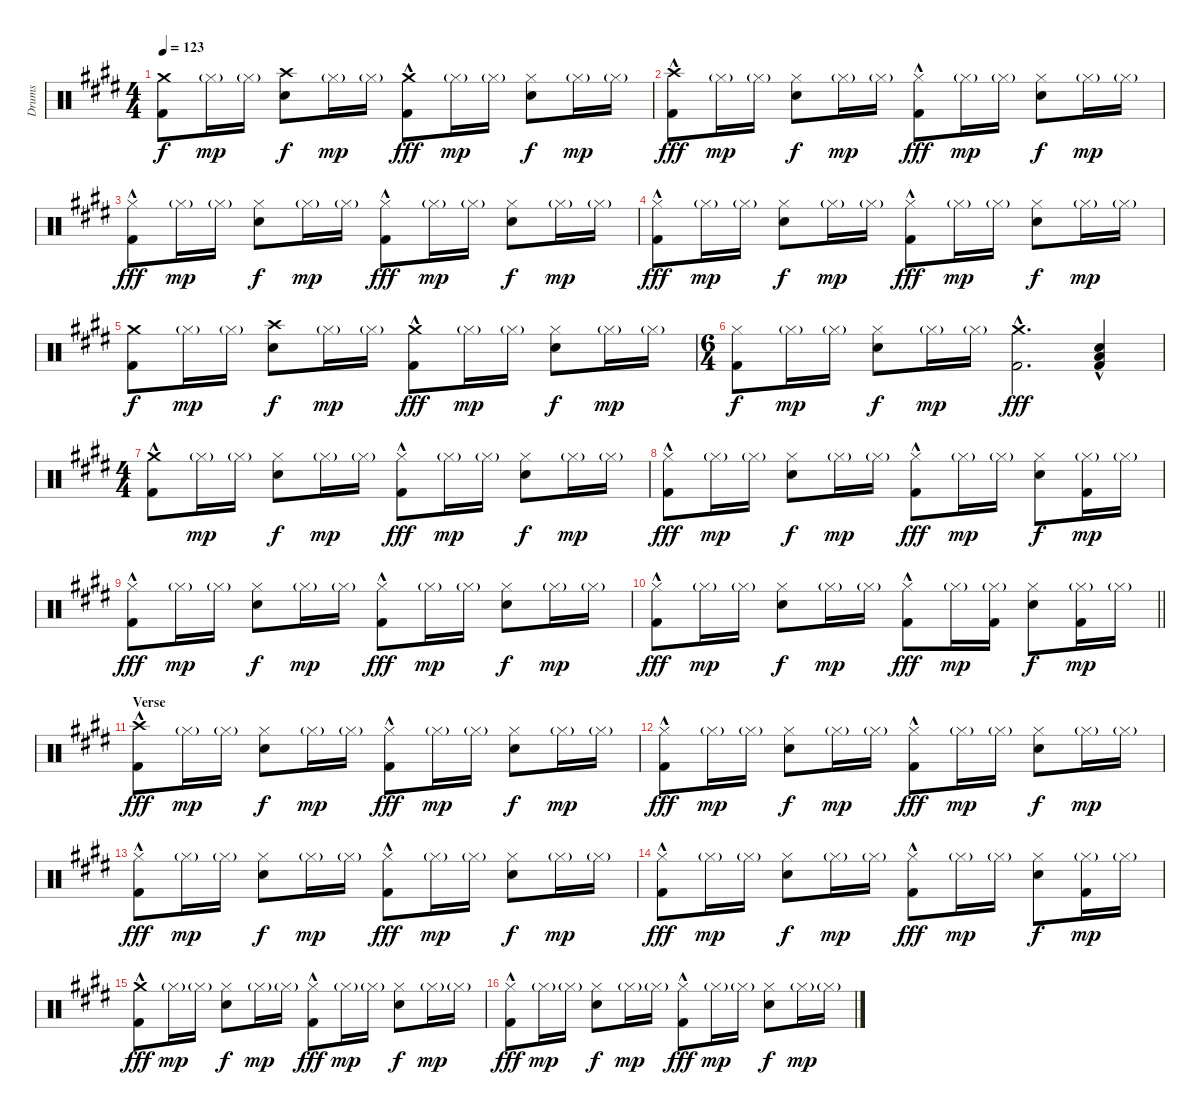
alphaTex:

\track ("Drums" "Drums") {instrument percussion}
\staff {score}
\articulation defaults
\ts (4 4)
\tempo 123
\clef neutral
\ks c#minor
("Crash medium (hit)" "Kick (hit) 2").8{dy f} "Hi-Hat (closed)"{g}.16{dy mp} "Hi-Hat (closed)"{g}.16 ("Crash high (hit)" "Snare (hit) 2").8{dy f} "Hi-Hat (closed)"{g}.16{dy mp} "Hi-Hat (closed)"{g}.16 ("Crash medium (hit)" "Kick (hit) 2"{hac}).8{dy fff} "Hi-Hat (closed)"{g}.16{dy mp} "Hi-Hat (closed)"{g}.16 ("Hi-Hat (closed)" "Snare (hit) 2").8{dy f} "Hi-Hat (closed)"{g}.16{dy mp} "Hi-Hat (closed)"{g}.16 |
("Crash high (hit)" "Kick (hit) 2"{hac}).8{dy fff} "Hi-Hat (closed)"{g}.16{dy mp} "Hi-Hat (closed)"{g}.16 ("Hi-Hat (closed)" "Snare (hit) 2").8{dy f} "Hi-Hat (closed)"{g}.16{dy mp} "Hi-Hat (closed)"{g}.16 ("Hi-Hat (closed)"{hac} "Kick (hit) 2"{hac}).8{dy fff} "Hi-Hat (closed)"{g}.16{dy mp} "Hi-Hat (closed)"{g}.16 ("Hi-Hat (closed)" "Snare (hit) 2").8{dy f} "Hi-Hat (closed)"{g}.16{dy mp} "Hi-Hat (closed)"{g}.16 |
("Hi-Hat (closed)"{hac} "Kick (hit) 2").8{dy fff} "Hi-Hat (closed)"{g}.16{dy mp} "Hi-Hat (closed)"{g}.16 ("Hi-Hat (closed)" "Snare (hit) 2").8{dy f} "Hi-Hat (closed)"{g}.16{dy mp} "Hi-Hat (closed)"{g}.16 ("Hi-Hat (closed)"{hac} "Kick (hit) 2"{hac}).8{dy fff} "Hi-Hat (closed)"{g}.16{dy mp} "Hi-Hat (closed)"{g}.16 ("Hi-Hat (closed)" "Snare (hit) 2").8{dy f} "Hi-Hat (closed)"{g}.16{dy mp} "Hi-Hat (closed)"{g}.16 |
("Hi-Hat (closed)"{hac} "Kick (hit) 2").8{dy fff} "Hi-Hat (closed)"{g}.16{dy mp} "Hi-Hat (closed)"{g}.16 ("Hi-Hat (closed)" "Snare (hit) 2").8{dy f} "Hi-Hat (closed)"{g}.16{dy mp} "Hi-Hat (closed)"{g}.16 ("Hi-Hat (closed)"{hac} "Kick (hit) 2"{hac}).8{dy fff} "Hi-Hat (closed)"{g}.16{dy mp} "Hi-Hat (closed)"{g}.16 ("Hi-Hat (closed)" "Snare (hit) 2").8{dy f} "Hi-Hat (closed)"{g}.16{dy mp} "Hi-Hat (closed)"{g}.16 |
("Crash medium (hit)" "Kick (hit) 2").8{dy f} "Hi-Hat (closed)"{g}.16{dy mp} "Hi-Hat (closed)"{g}.16 ("Crash high (hit)" "Snare (hit) 2").8{dy f} "Hi-Hat (closed)"{g}.16{dy mp} "Hi-Hat (closed)"{g}.16 ("Crash medium (hit)" "Kick (hit) 2"{hac}).8{dy fff} "Hi-Hat (closed)"{g}.16{dy mp} "Hi-Hat (closed)"{g}.16 ("Hi-Hat (closed)" "Snare (hit) 2").8{dy f} "Hi-Hat (closed)"{g}.16{dy mp} "Hi-Hat (closed)"{g}.16 |
\ts (6 4)
("Hi-Hat (closed)" "Kick (hit) 2").8{dy f} "Hi-Hat (closed)"{g}.16{dy mp} "Hi-Hat (closed)"{g}.16 ("Hi-Hat (closed)" "Snare (hit) 2").8{dy f} "Hi-Hat (closed)"{g}.16{dy mp} "Hi-Hat (closed)"{g}.16 ("Crash medium (hit)" "Kick (hit) 2"{hac}).2{d dy fff} ("Low Floor Tom (hit)"{hac} "Snare (hit) 2"{hac} "Kick (hit) 2"{hac}).4 |
\ts (4 4)
("Crash medium (hit)" "Kick (hit) 2"{hac}).8 "Hi-Hat (closed)"{g}.16{dy mp} "Hi-Hat (closed)"{g}.16 ("Hi-Hat (closed)" "Snare (hit) 2").8{dy f} "Hi-Hat (closed)"{g}.16{dy mp} "Hi-Hat (closed)"{g}.16 ("Hi-Hat (closed)"{hac} "Kick (hit) 2"{hac}).8{dy fff} "Hi-Hat (closed)"{g}.16{dy mp} "Hi-Hat (closed)"{g}.16 ("Hi-Hat (closed)" "Snare (hit) 2").8{dy f} "Hi-Hat (closed)"{g}.16{dy mp} "Hi-Hat (closed)"{g}.16 |
("Hi-Hat (closed)"{hac} "Kick (hit) 2").8{dy fff} "Hi-Hat (closed)"{g}.16{dy mp} "Hi-Hat (closed)"{g}.16 ("Hi-Hat (closed)" "Snare (hit) 2").8{dy f} "Hi-Hat (closed)"{g}.16{dy mp} "Hi-Hat (closed)"{g}.16 ("Hi-Hat (closed)"{hac} "Kick (hit) 2"{hac}).8{dy fff} "Hi-Hat (closed)"{g}.16{dy mp} "Hi-Hat (closed)"{g}.16 ("Hi-Hat (closed)" "Snare (hit) 2").8{dy f} ("Hi-Hat (closed)"{g} "Kick (hit) 2").16{dy mp} "Hi-Hat (closed)"{g}.16 |
("Hi-Hat (closed)"{hac} "Kick (hit) 2").8{dy fff} "Hi-Hat (closed)"{g}.16{dy mp} "Hi-Hat (closed)"{g}.16 ("Hi-Hat (closed)" "Snare (hit) 2").8{dy f} "Hi-Hat (closed)"{g}.16{dy mp} "Hi-Hat (closed)"{g}.16 ("Hi-Hat (closed)"{hac} "Kick (hit) 2"{hac}).8{dy fff} "Hi-Hat (closed)"{g}.16{dy mp} "Hi-Hat (closed)"{g}.16 ("Hi-Hat (closed)" "Snare (hit) 2").8{dy f} "Hi-Hat (closed)"{g}.16{dy mp} "Hi-Hat (closed)"{g}.16 |
\barLineRight lightlight
("Hi-Hat (closed)"{hac} "Kick (hit) 2").8{dy fff} "Hi-Hat (closed)"{g}.16{dy mp} "Hi-Hat (closed)"{g}.16 ("Hi-Hat (closed)" "Snare (hit) 2").8{dy f} "Hi-Hat (closed)"{g}.16{dy mp} "Hi-Hat (closed)"{g}.16 ("Hi-Hat (closed)"{hac} "Kick (hit) 2"{hac}).8{dy fff} "Hi-Hat (closed)"{g}.16{dy mp} ("Hi-Hat (closed)"{g} "Kick (hit) 2").16 ("Hi-Hat (closed)" "Snare (hit) 2").8{dy f} ("Hi-Hat (closed)"{g} "Kick (hit) 2").16{dy mp} "Hi-Hat (closed)"{g}.16 |
\section ("" "Verse")
("Crash high (hit)" "Kick (hit) 2"{hac}).8{dy fff} "Hi-Hat (closed)"{g}.16{dy mp} "Hi-Hat (closed)"{g}.16 ("Hi-Hat (closed)" "Snare (hit) 2").8{dy f} "Hi-Hat (closed)"{g}.16{dy mp} "Hi-Hat (closed)"{g}.16 ("Hi-Hat (closed)"{hac} "Kick (hit) 2"{hac}).8{dy fff} "Hi-Hat (closed)"{g}.16{dy mp} "Hi-Hat (closed)"{g}.16 ("Hi-Hat (closed)" "Snare (hit) 2").8{dy f} "Hi-Hat (closed)"{g}.16{dy mp} "Hi-Hat (closed)"{g}.16 |
("Hi-Hat (closed)"{hac} "Kick (hit) 2").8{dy fff} "Hi-Hat (closed)"{g}.16{dy mp} "Hi-Hat (closed)"{g}.16 ("Hi-Hat (closed)" "Snare (hit) 2").8{dy f} "Hi-Hat (closed)"{g}.16{dy mp} "Hi-Hat (closed)"{g}.16 ("Hi-Hat (closed)"{hac} "Kick (hit) 2"{hac}).8{dy fff} "Hi-Hat (closed)"{g}.16{dy mp} "Hi-Hat (closed)"{g}.16 ("Hi-Hat (closed)" "Snare (hit) 2").8{dy f} "Hi-Hat (closed)"{g}.16{dy mp} "Hi-Hat (closed)"{g}.16 |
("Hi-Hat (closed)"{hac} "Kick (hit) 2").8{dy fff} "Hi-Hat (closed)"{g}.16{dy mp} "Hi-Hat (closed)"{g}.16 ("Hi-Hat (closed)" "Snare (hit) 2").8{dy f} "Hi-Hat (closed)"{g}.16{dy mp} "Hi-Hat (closed)"{g}.16 ("Hi-Hat (closed)"{hac} "Kick (hit) 2"{hac}).8{dy fff} "Hi-Hat (closed)"{g}.16{dy mp} "Hi-Hat (closed)"{g}.16 ("Hi-Hat (closed)" "Snare (hit) 2").8{dy f} "Hi-Hat (closed)"{g}.16{dy mp} "Hi-Hat (closed)"{g}.16 |
("Hi-Hat (closed)"{hac} "Kick (hit) 2").8{dy fff} "Hi-Hat (closed)"{g}.16{dy mp} "Hi-Hat (closed)"{g}.16 ("Hi-Hat (closed)" "Snare (hit) 2").8{dy f} "Hi-Hat (closed)"{g}.16{dy mp} "Hi-Hat (closed)"{g}.16 ("Hi-Hat (closed)"{hac} "Kick (hit) 2"{hac}).8{dy fff} "Hi-Hat (closed)"{g}.16{dy mp} "Hi-Hat (closed)"{g}.16 ("Hi-Hat (closed)" "Snare (hit) 2").8{dy f} ("Hi-Hat (closed)"{g} "Kick (hit) 2").16{dy mp} "Hi-Hat (closed)"{g}.16 |
("Crash medium (hit)" "Kick (hit) 2"{hac}).8{dy fff} "Hi-Hat (closed)"{g}.16{dy mp} "Hi-Hat (closed)"{g}.16 ("Hi-Hat (closed)" "Snare (hit) 2").8{dy f} "Hi-Hat (closed)"{g}.16{dy mp} "Hi-Hat (closed)"{g}.16 ("Hi-Hat (closed)"{hac} "Kick (hit) 2"{hac}).8{dy fff} "Hi-Hat (closed)"{g}.16{dy mp} "Hi-Hat (closed)"{g}.16 ("Hi-Hat (closed)" "Snare (hit) 2").8{dy f} "Hi-Hat (closed)"{g}.16{dy mp} "Hi-Hat (closed)"{g}.16 |
("Hi-Hat (closed)"{hac} "Kick (hit) 2").8{dy fff} "Hi-Hat (closed)"{g}.16{dy mp} "Hi-Hat (closed)"{g}.16 ("Hi-Hat (closed)" "Snare (hit) 2").8{dy f} "Hi-Hat (closed)"{g}.16{dy mp} "Hi-Hat (closed)"{g}.16 ("Hi-Hat (closed)"{hac} "Kick (hit) 2"{hac}).8{dy fff} "Hi-Hat (closed)"{g}.16{dy mp} "Hi-Hat (closed)"{g}.16 ("Hi-Hat (closed)" "Snare (hit) 2").8{dy f} "Hi-Hat (closed)"{g}.16{dy mp} "Hi-Hat (closed)"{g}.16
